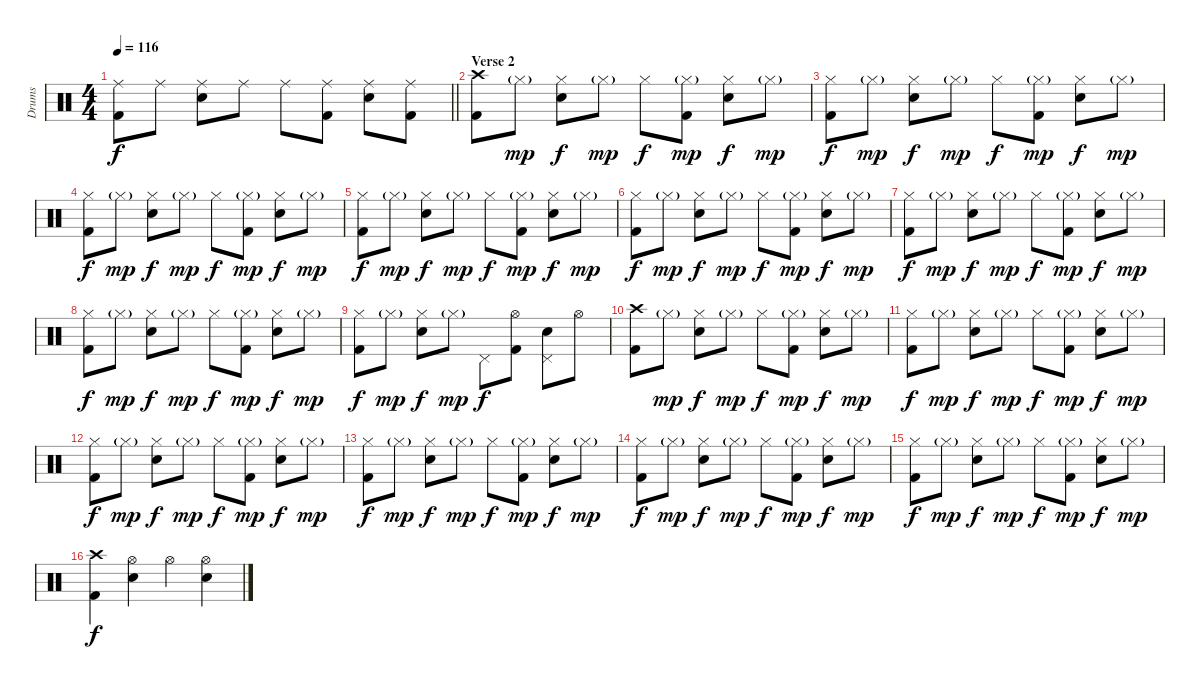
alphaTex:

\track ("Drums" "Drums") {instrument percussion}
\staff {score}
\articulation defaults
\ts (4 4)
\tempo 116
\clef neutral
\barLineRight lightlight
\ks c
("Ride (middle)" "Kick (hit) 2").8{dy f} "Ride (middle)".8 ("Ride (middle)" "Snare (hit) 2").8 "Ride (middle)".8 "Ride (middle)".8 ("Ride (middle)" "Kick (hit) 2").8 ("Ride (middle)" "Snare (hit) 2").8 ("Ride (middle)" "Kick (hit) 2").8 |
\section ("" "Verse 2")
("Crash high (hit)" "Kick (hit) 2").8 "Hi-Hat (closed)"{g}.8{dy mp} ("Hi-Hat (closed)" "Snare (hit) 2").8{dy f} "Hi-Hat (closed)"{g}.8{dy mp} "Hi-Hat (closed)".8{dy f} ("Hi-Hat (closed)"{g} "Kick (hit) 2").8{dy mp} ("Hi-Hat (closed)" "Snare (hit) 2").8{dy f} "Hi-Hat (closed)"{g}.8{dy mp} |
("Hi-Hat (closed)" "Kick (hit) 2").8{dy f} "Hi-Hat (closed)"{g}.8{dy mp} ("Hi-Hat (closed)" "Snare (hit) 2").8{dy f} "Hi-Hat (closed)"{g}.8{dy mp} "Hi-Hat (closed)".8{dy f} ("Hi-Hat (closed)"{g} "Kick (hit) 2").8{dy mp} ("Hi-Hat (closed)" "Snare (hit) 2").8{dy f} "Hi-Hat (closed)"{g}.8{dy mp} |
("Hi-Hat (closed)" "Kick (hit) 2").8{dy f} "Hi-Hat (closed)"{g}.8{dy mp} ("Hi-Hat (closed)" "Snare (hit) 2").8{dy f} "Hi-Hat (closed)"{g}.8{dy mp} "Hi-Hat (closed)".8{dy f} ("Hi-Hat (closed)"{g} "Kick (hit) 2").8{dy mp} ("Hi-Hat (closed)" "Snare (hit) 2").8{dy f} "Hi-Hat (closed)"{g}.8{dy mp} |
("Hi-Hat (closed)" "Kick (hit) 2").8{dy f} "Hi-Hat (closed)"{g}.8{dy mp} ("Hi-Hat (closed)" "Snare (hit) 2").8{dy f} "Hi-Hat (closed)"{g}.8{dy mp} "Hi-Hat (closed)".8{dy f} ("Hi-Hat (closed)"{g} "Kick (hit) 2").8{dy mp} ("Hi-Hat (closed)" "Snare (hit) 2").8{dy f} "Hi-Hat (closed)"{g}.8{dy mp} |
("Hi-Hat (closed)" "Kick (hit) 2").8{dy f} "Hi-Hat (closed)"{g}.8{dy mp} ("Hi-Hat (closed)" "Snare (hit) 2").8{dy f} "Hi-Hat (closed)"{g}.8{dy mp} "Hi-Hat (closed)".8{dy f} ("Hi-Hat (closed)"{g} "Kick (hit) 2").8{dy mp} ("Hi-Hat (closed)" "Snare (hit) 2").8{dy f} "Hi-Hat (closed)"{g}.8{dy mp} |
("Hi-Hat (closed)" "Kick (hit) 2").8{dy f} "Hi-Hat (closed)"{g}.8{dy mp} ("Hi-Hat (closed)" "Snare (hit) 2").8{dy f} "Hi-Hat (closed)"{g}.8{dy mp} "Hi-Hat (closed)".8{dy f} ("Hi-Hat (closed)"{g} "Kick (hit) 2").8{dy mp} ("Hi-Hat (closed)" "Snare (hit) 2").8{dy f} "Hi-Hat (closed)"{g}.8{dy mp} |
("Hi-Hat (closed)" "Kick (hit) 2").8{dy f} "Hi-Hat (closed)"{g}.8{dy mp} ("Hi-Hat (closed)" "Snare (hit) 2").8{dy f} "Hi-Hat (closed)"{g}.8{dy mp} "Hi-Hat (closed)".8{dy f} ("Hi-Hat (closed)"{g} "Kick (hit) 2").8{dy mp} ("Hi-Hat (closed)" "Snare (hit) 2").8{dy f} "Hi-Hat (closed)"{g}.8{dy mp} |
("Hi-Hat (closed)" "Kick (hit) 2").8{dy f} "Hi-Hat (closed)"{g}.8{dy mp} ("Hi-Hat (closed)" "Snare (hit) 2").8{dy f} "Hi-Hat (closed)"{g}.8{dy mp} "Pedal Hi-Hat (hit)".8{dy f} ("Hi-Hat (open)" "Kick (hit) 2").8 ("Snare (hit) 2" "Pedal Hi-Hat (hit)").8 "Hi-Hat (open)".8 |
("Crash high (hit)" "Kick (hit) 2").8 "Hi-Hat (closed)"{g}.8{dy mp} ("Hi-Hat (closed)" "Snare (hit) 2").8{dy f} "Hi-Hat (closed)"{g}.8{dy mp} "Hi-Hat (closed)".8{dy f} ("Hi-Hat (closed)"{g} "Kick (hit) 2").8{dy mp} ("Hi-Hat (closed)" "Snare (hit) 2").8{dy f} "Hi-Hat (closed)"{g}.8{dy mp} |
("Hi-Hat (closed)" "Kick (hit) 2").8{dy f} "Hi-Hat (closed)"{g}.8{dy mp} ("Hi-Hat (closed)" "Snare (hit) 2").8{dy f} "Hi-Hat (closed)"{g}.8{dy mp} "Hi-Hat (closed)".8{dy f} ("Hi-Hat (closed)"{g} "Kick (hit) 2").8{dy mp} ("Hi-Hat (closed)" "Snare (hit) 2").8{dy f} "Hi-Hat (closed)"{g}.8{dy mp} |
("Hi-Hat (closed)" "Kick (hit) 2").8{dy f} "Hi-Hat (closed)"{g}.8{dy mp} ("Hi-Hat (closed)" "Snare (hit) 2").8{dy f} "Hi-Hat (closed)"{g}.8{dy mp} "Hi-Hat (closed)".8{dy f} ("Hi-Hat (closed)"{g} "Kick (hit) 2").8{dy mp} ("Hi-Hat (closed)" "Snare (hit) 2").8{dy f} "Hi-Hat (closed)"{g}.8{dy mp} |
("Hi-Hat (closed)" "Kick (hit) 2").8{dy f} "Hi-Hat (closed)"{g}.8{dy mp} ("Hi-Hat (closed)" "Snare (hit) 2").8{dy f} "Hi-Hat (closed)"{g}.8{dy mp} "Hi-Hat (closed)".8{dy f} ("Hi-Hat (closed)"{g} "Kick (hit) 2").8{dy mp} ("Hi-Hat (closed)" "Snare (hit) 2").8{dy f} "Hi-Hat (closed)"{g}.8{dy mp} |
("Hi-Hat (closed)" "Kick (hit) 2").8{dy f} "Hi-Hat (closed)"{g}.8{dy mp} ("Hi-Hat (closed)" "Snare (hit) 2").8{dy f} "Hi-Hat (closed)"{g}.8{dy mp} "Hi-Hat (closed)".8{dy f} ("Hi-Hat (closed)"{g} "Kick (hit) 2").8{dy mp} ("Hi-Hat (closed)" "Snare (hit) 2").8{dy f} "Hi-Hat (closed)"{g}.8{dy mp} |
("Hi-Hat (closed)" "Kick (hit) 2").8{dy f} "Hi-Hat (closed)"{g}.8{dy mp} ("Hi-Hat (closed)" "Snare (hit) 2").8{dy f} "Hi-Hat (closed)"{g}.8{dy mp} "Hi-Hat (closed)".8{dy f} ("Hi-Hat (closed)"{g} "Kick (hit) 2").8{dy mp} ("Hi-Hat (closed)" "Snare (hit) 2").8{dy f} "Hi-Hat (closed)"{g}.8{dy mp} |
("Crash high (hit)" "Kick (hit) 2").4{dy f} ("Hi-Hat (open)" "Snare (hit) 2").4 "Hi-Hat (open)".4 ("Hi-Hat (open)" "Snare (hit) 2").4
